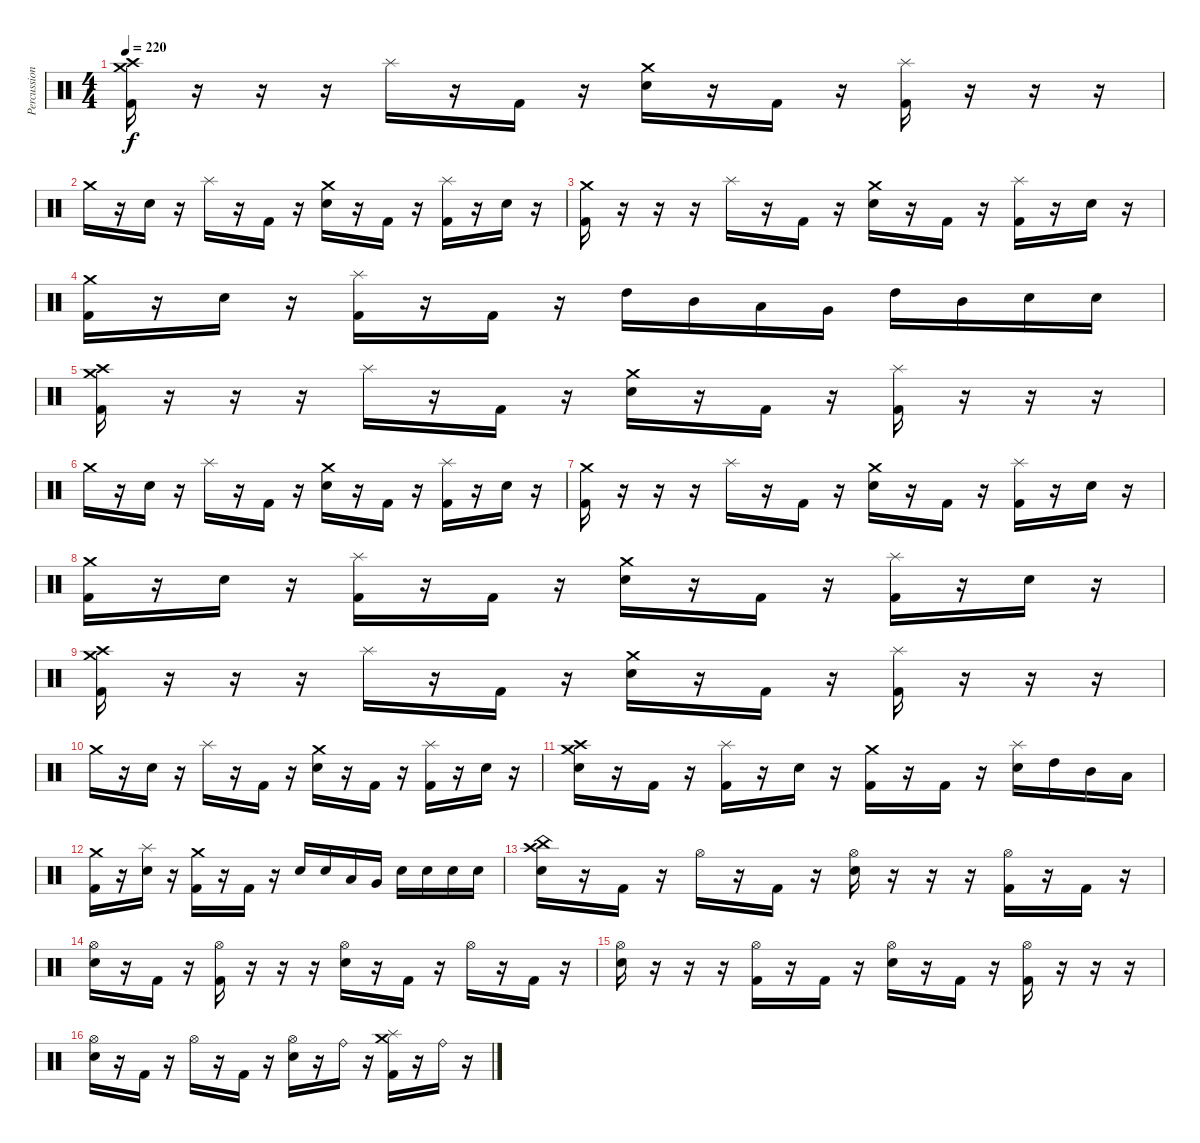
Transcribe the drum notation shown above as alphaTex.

\track ("Percussion" "Percussion") {instrument percussion}
\staff {score}
\articulation defaults
\ts (4 4)
\tempo 220
\clef neutral
\ks c
("Crash high (hit)" "Crash medium (hit)" "Kick (hit) 2").16{dy f} r.16 r.16 r.16 "Splash (hit)".16 r.16 "Kick (hit) 2".16 r.16 ("Crash medium (hit)" "Electric Snare (hit)").16 r.16 "Kick (hit) 2".16 r.16 ("Splash (hit)" "Kick (hit) 2").16 r.16 r.16 r.16 |
"Crash medium (hit)".16 r.16 "Electric Snare (hit)".16 r.16 "Splash (hit)".16 r.16 "Kick (hit) 2".16 r.16 ("Crash medium (hit)" "Electric Snare (hit)").16 r.16 "Kick (hit) 2".16 r.16 ("Splash (hit)" "Kick (hit) 2").16 r.16 "Electric Snare (hit)".16 r.16 |
("Crash medium (hit)" "Kick (hit) 2").16 r.16 r.16 r.16 "Splash (hit)".16 r.16 "Kick (hit) 2".16 r.16 ("Crash medium (hit)" "Electric Snare (hit)").16 r.16 "Kick (hit) 2".16 r.16 ("Splash (hit)" "Kick (hit) 2").16 r.16 "Electric Snare (hit)".16 r.16 |
("Crash medium (hit)" "Kick (hit) 2").16 r.16 "Electric Snare (hit)".16 r.16 ("Splash (hit)" "Kick (hit) 2").16 r.16 "Kick (hit) 2".16 r.16 "High Tom (hit)".16 "Mid Tom (hit)".16 "Low Tom (hit)".16 "Very Low Tom (hit)".16 "High Tom (hit)".16 "Mid Tom (hit)".16 "Electric Snare (hit)".16 "Electric Snare (hit)".16 |
("Crash high (hit)" "Crash medium (hit)" "Kick (hit) 2").16 r.16 r.16 r.16 "Splash (hit)".16 r.16 "Kick (hit) 2".16 r.16 ("Crash medium (hit)" "Electric Snare (hit)").16 r.16 "Kick (hit) 2".16 r.16 ("Splash (hit)" "Kick (hit) 2").16 r.16 r.16 r.16 |
"Crash medium (hit)".16 r.16 "Electric Snare (hit)".16 r.16 "Splash (hit)".16 r.16 "Kick (hit) 2".16 r.16 ("Crash medium (hit)" "Electric Snare (hit)").16 r.16 "Kick (hit) 2".16 r.16 ("Splash (hit)" "Kick (hit) 2").16 r.16 "Electric Snare (hit)".16 r.16 |
("Crash medium (hit)" "Kick (hit) 2").16 r.16 r.16 r.16 "Splash (hit)".16 r.16 "Kick (hit) 2".16 r.16 ("Crash medium (hit)" "Electric Snare (hit)").16 r.16 "Kick (hit) 2".16 r.16 ("Splash (hit)" "Kick (hit) 2").16 r.16 "Electric Snare (hit)".16 r.16 |
("Crash medium (hit)" "Kick (hit) 2").16 r.16 "Electric Snare (hit)".16 r.16 ("Splash (hit)" "Kick (hit) 2").16 r.16 "Kick (hit) 2".16 r.16 ("Crash medium (hit)" "Electric Snare (hit)").16 r.16 "Kick (hit) 2".16 r.16 ("Splash (hit)" "Kick (hit) 2").16 r.16 "Electric Snare (hit)".16 r.16 |
("Crash high (hit)" "Crash medium (hit)" "Kick (hit) 2").16 r.16 r.16 r.16 "Splash (hit)".16 r.16 "Kick (hit) 2".16 r.16 ("Crash medium (hit)" "Electric Snare (hit)").16 r.16 "Kick (hit) 2".16 r.16 ("Splash (hit)" "Kick (hit) 2").16 r.16 r.16 r.16 |
"Crash medium (hit)".16 r.16 "Electric Snare (hit)".16 r.16 "Splash (hit)".16 r.16 "Kick (hit) 2".16 r.16 ("Crash medium (hit)" "Electric Snare (hit)").16 r.16 "Kick (hit) 2".16 r.16 ("Splash (hit)" "Kick (hit) 2").16 r.16 "Electric Snare (hit)".16 r.16 |
("Crash medium (hit)" "Crash high (hit)" "Electric Snare (hit)").16 r.16 "Kick (hit) 2".16 r.16 ("Splash (hit)" "Kick (hit) 2").16 r.16 "Electric Snare (hit)".16 r.16 ("Crash medium (hit)" "Kick (hit) 2").16 r.16 "Kick (hit) 2".16 r.16 ("Splash (hit)" "Electric Snare (hit)").16 "High Tom (hit)".16 "Mid Tom (hit)".16 "Low Tom (hit)".16 |
("Crash medium (hit)" "Kick (hit) 2").16 r.16 ("Splash (hit)" "Electric Snare (hit)").16 r.16 ("Crash medium (hit)" "Kick (hit) 2").16 r.16 "Kick (hit) 2".16 r.16 "Electric Snare (hit)".16 "Electric Snare (hit)".16 "Low Tom (hit)".16 "Very Low Tom (hit)".16 "Electric Snare (hit)".16 "Electric Snare (hit)".16 "Electric Snare (hit)".16 "Electric Snare (hit)".16 |
("Crash high (hit)" "China (hit)" "Electric Snare (hit)").16 r.16 "Kick (hit) 2".16 r.16 "Hi-Hat (open)".16 r.16 "Kick (hit) 2".16 r.16 ("Hi-Hat (open)" "Electric Snare (hit)").16 r.16 r.16 r.16 ("Hi-Hat (open)" "Kick (hit) 2").16 r.16 "Kick (hit) 2".16 r.16 |
("Hi-Hat (open)" "Electric Snare (hit)").16 r.16 "Kick (hit) 2".16 r.16 ("Hi-Hat (open)" "Kick (hit) 2").16 r.16 r.16 r.16 ("Hi-Hat (open)" "Electric Snare (hit)").16 r.16 "Kick (hit) 2".16 r.16 "Hi-Hat (open)".16 r.16 "Kick (hit) 2".16 r.16 |
("Hi-Hat (open)" "Electric Snare (hit)").16 r.16 r.16 r.16 ("Hi-Hat (open)" "Kick (hit) 2").16 r.16 "Kick (hit) 2".16 r.16 ("Hi-Hat (open)" "Electric Snare (hit)").16 r.16 "Kick (hit) 2".16 r.16 ("Hi-Hat (open)" "Kick (hit) 2").16 r.16 r.16 r.16 |
("Hi-Hat (open)" "Electric Snare (hit)").16 r.16 "Kick (hit) 2".16 r.16 "Hi-Hat (open)".16 r.16 "Kick (hit) 2".16 r.16 ("Hi-Hat (open)" "Electric Snare (hit)").16 r.16 "Ride (bell)".16 r.16 ("Splash (hit)" "Crash medium (hit)" "Kick (hit) 2").16 r.16 "Ride (bell)".16 r.16
